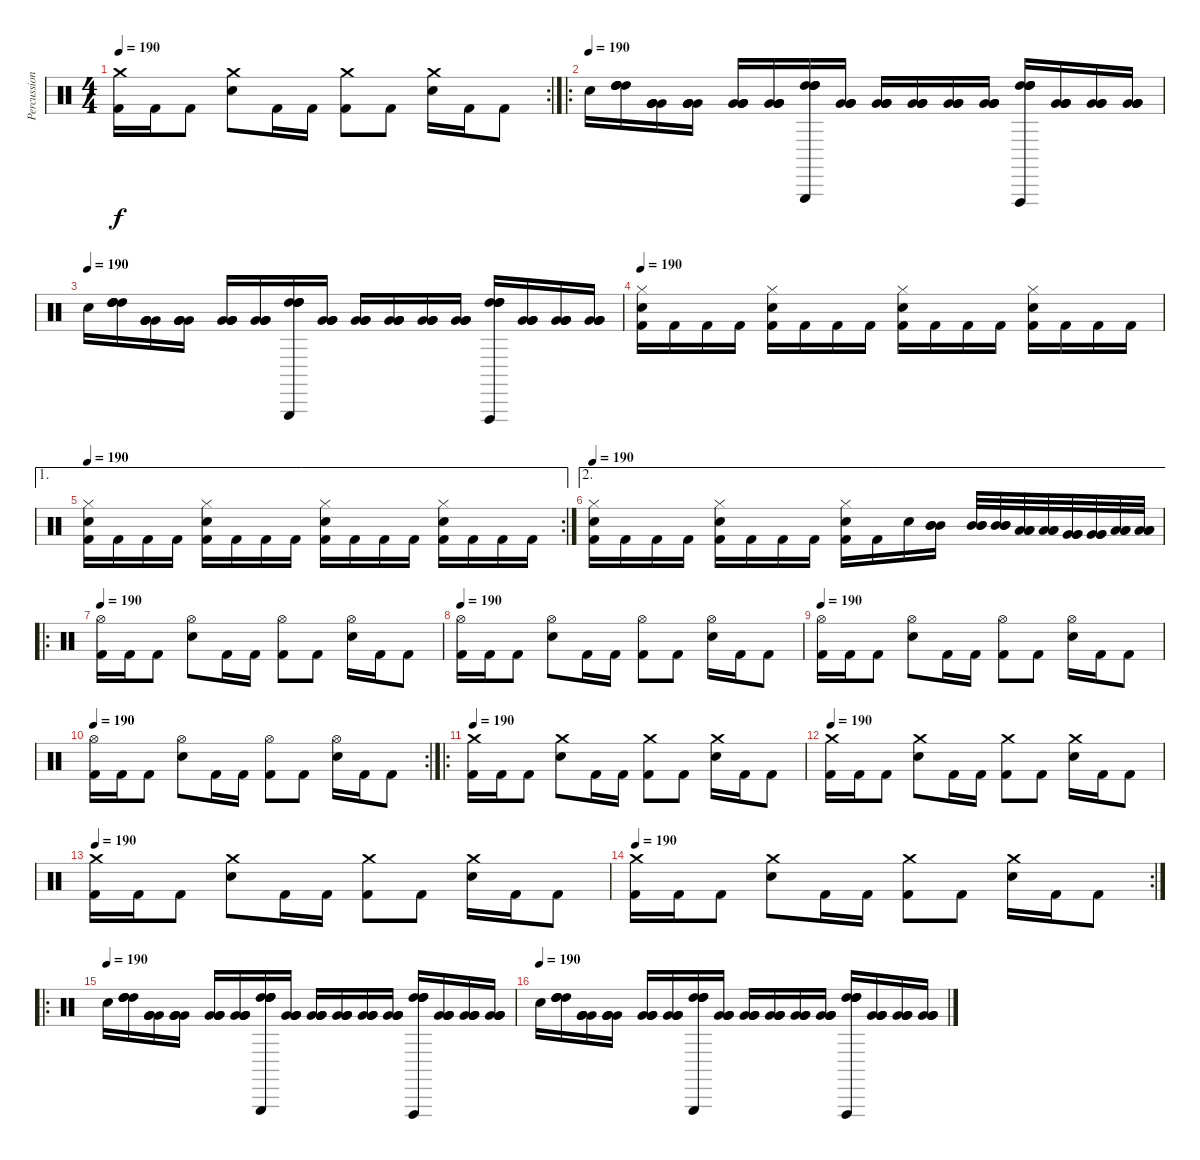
\track ("Percussion" "Percussion") {instrument percussion}
\staff {score}
\articulation defaults
\rc 2
\ts (4 4)
\tempo 190
\clef neutral
\ks c
("Crash medium (hit)" "Kick (hit) 2").16{dy f} "Kick (hit) 2".16 "Kick (hit) 2".8 ("Crash medium (hit)" "Electric Snare (hit)").8 "Kick (hit) 2".16 "Kick (hit) 2".16 ("Crash medium (hit)" "Kick (hit) 2").8 "Kick (hit) 2".8 ("Crash medium (hit)" "Electric Snare (hit)").16 "Kick (hit) 2".16 "Kick (hit) 2".8 |
\ro
\tempo (190)
"Electric Snare (hit)".16 ("High Tom (hit)" "High Tom (hit)" "High Tom (hit)" "High Tom (hit)").16 ("Very Low Tom (hit)" "Very Low Tom (hit)" "Very Low Tom (hit)" "Very Low Tom (hit)").16 ("Very Low Tom (hit)" "Very Low Tom (hit)" "Very Low Tom (hit)" "Very Low Tom (hit)").16 ("Very Low Tom (hit)" "Very Low Tom (hit)" "Very Low Tom (hit)" "Very Low Tom (hit)").16 ("Very Low Tom (hit)" "Very Low Tom (hit)" "Very Low Tom (hit)" "Very Low Tom (hit)").16 ("Triangle (hit)" "High Tom (hit)" "High Tom (hit)" "High Tom (hit)" "High Tom (hit)").16 ("Very Low Tom (hit)" "Very Low Tom (hit)" "Very Low Tom (hit)" "Very Low Tom (hit)").16 ("Very Low Tom (hit)" "Very Low Tom (hit)" "Very Low Tom (hit)" "Very Low Tom (hit)").16 ("Very Low Tom (hit)" "Very Low Tom (hit)" "Very Low Tom (hit)" "Very Low Tom (hit)").16 ("Very Low Tom (hit)" "Very Low Tom (hit)" "Very Low Tom (hit)" "Very Low Tom (hit)").16 ("Very Low Tom (hit)" "Very Low Tom (hit)" "Very Low Tom (hit)" "Very Low Tom (hit)").16 ("Vibraslap (hit)" "High Tom (hit)" "High Tom (hit)" "High Tom (hit)" "High Tom (hit)").16 ("Very Low Tom (hit)" "Very Low Tom (hit)" "Very Low Tom (hit)" "Very Low Tom (hit)").16 ("Very Low Tom (hit)" "Very Low Tom (hit)" "Very Low Tom (hit)" "Very Low Tom (hit)").16 ("Very Low Tom (hit)" "Very Low Tom (hit)" "Very Low Tom (hit)" "Very Low Tom (hit)").16 |
\tempo (190)
"Electric Snare (hit)".16 ("High Tom (hit)" "High Tom (hit)" "High Tom (hit)" "High Tom (hit)").16 ("Very Low Tom (hit)" "Very Low Tom (hit)" "Very Low Tom (hit)" "Very Low Tom (hit)").16 ("Very Low Tom (hit)" "Very Low Tom (hit)" "Very Low Tom (hit)" "Very Low Tom (hit)").16 ("Very Low Tom (hit)" "Very Low Tom (hit)" "Very Low Tom (hit)" "Very Low Tom (hit)").16 ("Very Low Tom (hit)" "Very Low Tom (hit)" "Very Low Tom (hit)" "Very Low Tom (hit)").16 ("Triangle (hit)" "High Tom (hit)" "High Tom (hit)" "High Tom (hit)" "High Tom (hit)").16 ("Very Low Tom (hit)" "Very Low Tom (hit)" "Very Low Tom (hit)" "Very Low Tom (hit)").16 ("Very Low Tom (hit)" "Very Low Tom (hit)" "Very Low Tom (hit)" "Very Low Tom (hit)").16 ("Very Low Tom (hit)" "Very Low Tom (hit)" "Very Low Tom (hit)" "Very Low Tom (hit)").16 ("Very Low Tom (hit)" "Very Low Tom (hit)" "Very Low Tom (hit)" "Very Low Tom (hit)").16 ("Very Low Tom (hit)" "Very Low Tom (hit)" "Very Low Tom (hit)" "Very Low Tom (hit)").16 ("Vibraslap (hit)" "High Tom (hit)" "High Tom (hit)" "High Tom (hit)" "High Tom (hit)").16 ("Very Low Tom (hit)" "Very Low Tom (hit)" "Very Low Tom (hit)" "Very Low Tom (hit)").16 ("Very Low Tom (hit)" "Very Low Tom (hit)" "Very Low Tom (hit)" "Very Low Tom (hit)").16 ("Very Low Tom (hit)" "Very Low Tom (hit)" "Very Low Tom (hit)" "Very Low Tom (hit)").16 |
\tempo 190
("Hi-Hat (closed)" "Electric Snare (hit)" "Kick (hit) 2").16 "Kick (hit) 2".16 "Kick (hit) 2".16 "Kick (hit) 2".16 ("Hi-Hat (closed)" "Electric Snare (hit)" "Kick (hit) 2").16 "Kick (hit) 2".16 "Kick (hit) 2".16 "Kick (hit) 2".16 ("Hi-Hat (closed)" "Electric Snare (hit)" "Kick (hit) 2").16 "Kick (hit) 2".16 "Kick (hit) 2".16 "Kick (hit) 2".16 ("Hi-Hat (closed)" "Electric Snare (hit)" "Kick (hit) 2").16 "Kick (hit) 2".16 "Kick (hit) 2".16 "Kick (hit) 2".16 |
\ae 1
\rc 2
\tempo 190
("Hi-Hat (closed)" "Electric Snare (hit)" "Kick (hit) 2").16 "Kick (hit) 2".16 "Kick (hit) 2".16 "Kick (hit) 2".16 ("Hi-Hat (closed)" "Electric Snare (hit)" "Kick (hit) 2").16 "Kick (hit) 2".16 "Kick (hit) 2".16 "Kick (hit) 2".16 ("Hi-Hat (closed)" "Electric Snare (hit)" "Kick (hit) 2").16 "Kick (hit) 2".16 "Kick (hit) 2".16 "Kick (hit) 2".16 ("Hi-Hat (closed)" "Electric Snare (hit)" "Kick (hit) 2").16 "Kick (hit) 2".16 "Kick (hit) 2".16 "Kick (hit) 2".16 |
\ae 2
\tempo 190
("Hi-Hat (closed)" "Electric Snare (hit)" "Kick (hit) 2").16 "Kick (hit) 2".16 "Kick (hit) 2".16 "Kick (hit) 2".16 ("Hi-Hat (closed)" "Electric Snare (hit)" "Kick (hit) 2").16 "Kick (hit) 2".16 "Kick (hit) 2".16 "Kick (hit) 2".16 ("Hi-Hat (closed)" "Electric Snare (hit)" "Kick (hit) 2").16 "Kick (hit) 2".16 "Electric Snare (hit)".16 ("Mid Tom (hit)" "Mid Tom (hit)" "Mid Tom (hit)").16 ("Mid Tom (hit)" "Mid Tom (hit)" "Mid Tom (hit)").32 ("Mid Tom (hit)" "Mid Tom (hit)" "Mid Tom (hit)").32 ("Low Tom (hit)" "Low Tom (hit)" "Low Tom (hit)").32 ("Low Tom (hit)" "Low Tom (hit)" "Low Tom (hit)").32 ("Very Low Tom (hit)" "Very Low Tom (hit)" "Very Low Tom (hit)").32 ("Very Low Tom (hit)" "Very Low Tom (hit)" "Very Low Tom (hit)").32 ("Low Floor Tom (hit)" "Low Floor Tom (hit)" "Low Floor Tom (hit)").32 ("Low Floor Tom (hit)" "Low Floor Tom (hit)" "Low Floor Tom (hit)").32 |
\ro
\tempo 190
("Hi-Hat (open)" "Kick (hit) 2").16 "Kick (hit) 2".16 "Kick (hit) 2".8 ("Hi-Hat (open)" "Electric Snare (hit)").8 "Kick (hit) 2".16 "Kick (hit) 2".16 ("Hi-Hat (open)" "Kick (hit) 2").8 "Kick (hit) 2".8 ("Hi-Hat (open)" "Electric Snare (hit)").16 "Kick (hit) 2".16 "Kick (hit) 2".8 |
\tempo 190
("Hi-Hat (open)" "Kick (hit) 2").16 "Kick (hit) 2".16 "Kick (hit) 2".8 ("Hi-Hat (open)" "Electric Snare (hit)").8 "Kick (hit) 2".16 "Kick (hit) 2".16 ("Hi-Hat (open)" "Kick (hit) 2").8 "Kick (hit) 2".8 ("Hi-Hat (open)" "Electric Snare (hit)").16 "Kick (hit) 2".16 "Kick (hit) 2".8 |
\tempo 190
("Hi-Hat (open)" "Kick (hit) 2").16 "Kick (hit) 2".16 "Kick (hit) 2".8 ("Hi-Hat (open)" "Electric Snare (hit)").8 "Kick (hit) 2".16 "Kick (hit) 2".16 ("Hi-Hat (open)" "Kick (hit) 2").8 "Kick (hit) 2".8 ("Hi-Hat (open)" "Electric Snare (hit)").16 "Kick (hit) 2".16 "Kick (hit) 2".8 |
\rc 2
\tempo 190
("Hi-Hat (open)" "Kick (hit) 2").16 "Kick (hit) 2".16 "Kick (hit) 2".8 ("Hi-Hat (open)" "Electric Snare (hit)").8 "Kick (hit) 2".16 "Kick (hit) 2".16 ("Hi-Hat (open)" "Kick (hit) 2").8 "Kick (hit) 2".8 ("Hi-Hat (open)" "Electric Snare (hit)").16 "Kick (hit) 2".16 "Kick (hit) 2".8 |
\ro
\tempo 190
("Crash medium (hit)" "Kick (hit) 2").16 "Kick (hit) 2".16 "Kick (hit) 2".8 ("Crash medium (hit)" "Electric Snare (hit)").8 "Kick (hit) 2".16 "Kick (hit) 2".16 ("Crash medium (hit)" "Kick (hit) 2").8 "Kick (hit) 2".8 ("Crash medium (hit)" "Electric Snare (hit)").16 "Kick (hit) 2".16 "Kick (hit) 2".8 |
\tempo 190
("Crash medium (hit)" "Kick (hit) 2").16 "Kick (hit) 2".16 "Kick (hit) 2".8 ("Crash medium (hit)" "Electric Snare (hit)").8 "Kick (hit) 2".16 "Kick (hit) 2".16 ("Crash medium (hit)" "Kick (hit) 2").8 "Kick (hit) 2".8 ("Crash medium (hit)" "Electric Snare (hit)").16 "Kick (hit) 2".16 "Kick (hit) 2".8 |
\tempo 190
("Crash medium (hit)" "Kick (hit) 2").16 "Kick (hit) 2".16 "Kick (hit) 2".8 ("Crash medium (hit)" "Electric Snare (hit)").8 "Kick (hit) 2".16 "Kick (hit) 2".16 ("Crash medium (hit)" "Kick (hit) 2").8 "Kick (hit) 2".8 ("Crash medium (hit)" "Electric Snare (hit)").16 "Kick (hit) 2".16 "Kick (hit) 2".8 |
\rc 2
\tempo 190
("Crash medium (hit)" "Kick (hit) 2").16 "Kick (hit) 2".16 "Kick (hit) 2".8 ("Crash medium (hit)" "Electric Snare (hit)").8 "Kick (hit) 2".16 "Kick (hit) 2".16 ("Crash medium (hit)" "Kick (hit) 2").8 "Kick (hit) 2".8 ("Crash medium (hit)" "Electric Snare (hit)").16 "Kick (hit) 2".16 "Kick (hit) 2".8 |
\ro
\tempo (190)
"Electric Snare (hit)".16 ("High Tom (hit)" "High Tom (hit)" "High Tom (hit)" "High Tom (hit)").16 ("Very Low Tom (hit)" "Very Low Tom (hit)" "Very Low Tom (hit)" "Very Low Tom (hit)").16 ("Very Low Tom (hit)" "Very Low Tom (hit)" "Very Low Tom (hit)" "Very Low Tom (hit)").16 ("Very Low Tom (hit)" "Very Low Tom (hit)" "Very Low Tom (hit)" "Very Low Tom (hit)").16 ("Very Low Tom (hit)" "Very Low Tom (hit)" "Very Low Tom (hit)" "Very Low Tom (hit)").16 ("Triangle (hit)" "High Tom (hit)" "High Tom (hit)" "High Tom (hit)" "High Tom (hit)").16 ("Very Low Tom (hit)" "Very Low Tom (hit)" "Very Low Tom (hit)" "Very Low Tom (hit)").16 ("Very Low Tom (hit)" "Very Low Tom (hit)" "Very Low Tom (hit)" "Very Low Tom (hit)").16 ("Very Low Tom (hit)" "Very Low Tom (hit)" "Very Low Tom (hit)" "Very Low Tom (hit)").16 ("Very Low Tom (hit)" "Very Low Tom (hit)" "Very Low Tom (hit)" "Very Low Tom (hit)").16 ("Very Low Tom (hit)" "Very Low Tom (hit)" "Very Low Tom (hit)" "Very Low Tom (hit)").16 ("Vibraslap (hit)" "High Tom (hit)" "High Tom (hit)" "High Tom (hit)" "High Tom (hit)").16 ("Very Low Tom (hit)" "Very Low Tom (hit)" "Very Low Tom (hit)" "Very Low Tom (hit)").16 ("Very Low Tom (hit)" "Very Low Tom (hit)" "Very Low Tom (hit)" "Very Low Tom (hit)").16 ("Very Low Tom (hit)" "Very Low Tom (hit)" "Very Low Tom (hit)" "Very Low Tom (hit)").16 |
\tempo (190)
"Electric Snare (hit)".16 ("High Tom (hit)" "High Tom (hit)" "High Tom (hit)" "High Tom (hit)").16 ("Very Low Tom (hit)" "Very Low Tom (hit)" "Very Low Tom (hit)" "Very Low Tom (hit)").16 ("Very Low Tom (hit)" "Very Low Tom (hit)" "Very Low Tom (hit)" "Very Low Tom (hit)").16 ("Very Low Tom (hit)" "Very Low Tom (hit)" "Very Low Tom (hit)" "Very Low Tom (hit)").16 ("Very Low Tom (hit)" "Very Low Tom (hit)" "Very Low Tom (hit)" "Very Low Tom (hit)").16 ("Triangle (hit)" "High Tom (hit)" "High Tom (hit)" "High Tom (hit)" "High Tom (hit)").16 ("Very Low Tom (hit)" "Very Low Tom (hit)" "Very Low Tom (hit)" "Very Low Tom (hit)").16 ("Very Low Tom (hit)" "Very Low Tom (hit)" "Very Low Tom (hit)" "Very Low Tom (hit)").16 ("Very Low Tom (hit)" "Very Low Tom (hit)" "Very Low Tom (hit)" "Very Low Tom (hit)").16 ("Very Low Tom (hit)" "Very Low Tom (hit)" "Very Low Tom (hit)" "Very Low Tom (hit)").16 ("Very Low Tom (hit)" "Very Low Tom (hit)" "Very Low Tom (hit)" "Very Low Tom (hit)").16 ("Vibraslap (hit)" "High Tom (hit)" "High Tom (hit)" "High Tom (hit)" "High Tom (hit)").16 ("Very Low Tom (hit)" "Very Low Tom (hit)" "Very Low Tom (hit)" "Very Low Tom (hit)").16 ("Very Low Tom (hit)" "Very Low Tom (hit)" "Very Low Tom (hit)" "Very Low Tom (hit)").16 ("Very Low Tom (hit)" "Very Low Tom (hit)" "Very Low Tom (hit)" "Very Low Tom (hit)").16
